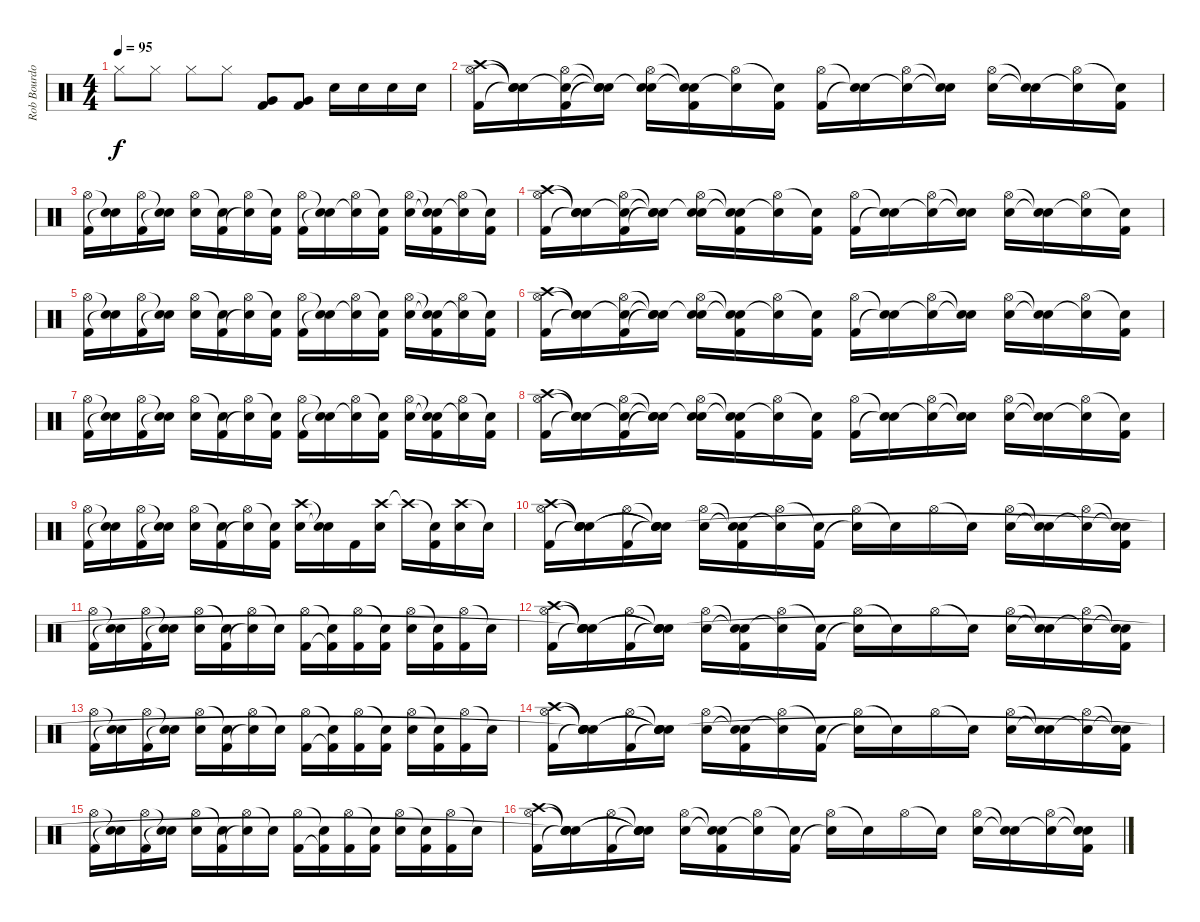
\track ("Rob Bourdon" "Rob Bourdo") {instrument percussion}
\staff {score}
\articulation defaults
\ts (4 4)
\tempo 95
\clef neutral
\ks c "Hi-Hat (closed)".8{dy f} "Hi-Hat (closed)".8 "Hi-Hat (closed)".8 "Hi-Hat (closed)".8
("Very Low Tom (hit)" "Kick (hit) 2").8 ("Very Low Tom (hit)" "Kick (hit) 2").8 "Snare (hit) 2".16 "Snare (hit) 2".16 "Snare (hit) 2".16 "Snare (hit) 2".16 |
("Crash high (hit)" "Hi-Hat (open)" "Kick (hit) 2").16 ("Snare (hit)"{t} "Snare (hit)"{t} "Snare (hit)"{t}).16 ("Snare (hit)"{t} "Hi-Hat (open)" "Kick (hit) 2").16 ("Snare (hit)"{t} "Snare (hit)"{t} "Snare (hit)"{t}).16 ("Snare (hit)"{t} "Hi-Hat (open)" "Snare (hit) 2").16 ("Snare (hit)"{t} "Snare (hit)"{t} "Kick (hit) 2").16 ("Hi-Hat (open)" "Snare (hit)"{t}).16 ("Snare (hit)"{t} "Kick (hit) 2").16 ("Hi-Hat (open)" "Kick (hit) 2").16 ("Snare (hit)"{t} "Snare (hit)"{t}).16 ("Hi-Hat (open)" "Snare (hit)"{t}).16 ("Snare (hit)"{t} "Snare (hit)"{t}).16 ("Hi-Hat (open)" "Snare (hit) 2").16 ("Snare (hit)"{t} "Snare (hit)"{t}).16 ("Hi-Hat (open)" "Snare (hit)"{t}).16 ("Snare (hit)"{t} "Kick (hit) 2").16 |
("Hi-Hat (open)" "Kick (hit) 2").16 ("Snare (hit)"{t} "Snare (hit)"{t}).16 ("Hi-Hat (open)" "Kick (hit) 2").16 ("Snare (hit)"{t} "Snare (hit)"{t}).16 ("Hi-Hat (open)" "Snare (hit) 2").16 ("Snare (hit)"{t} "Kick (hit) 2").16 ("Hi-Hat (open)" "Snare (hit)"{t}).16 ("Snare (hit)"{t} "Kick (hit) 2").16 ("Hi-Hat (open)" "Kick (hit) 2").16 ("Snare (hit)"{t} "Snare (hit)"{t}).16 ("Hi-Hat (open)" "Snare (hit)"{t}).16 ("Snare (hit)"{t} "Kick (hit) 2").16 ("Hi-Hat (open)" "Snare (hit) 2").16 ("Snare (hit)"{t} "Snare (hit)"{t} "Kick (hit) 2").16 ("Hi-Hat (open)" "Snare (hit)"{t}).16 ("Snare (hit)"{t} "Kick (hit) 2").16 |
("Crash high (hit)" "Hi-Hat (open)" "Kick (hit) 2").16 ("Snare (hit)"{t} "Snare (hit)"{t} "Snare (hit)"{t}).16 ("Snare (hit)"{t} "Hi-Hat (open)" "Kick (hit) 2").16 ("Snare (hit)"{t} "Snare (hit)"{t} "Snare (hit)"{t}).16 ("Snare (hit)"{t} "Hi-Hat (open)" "Snare (hit) 2").16 ("Snare (hit)"{t} "Snare (hit)"{t} "Kick (hit) 2").16 ("Hi-Hat (open)" "Snare (hit)"{t}).16 ("Snare (hit)"{t} "Kick (hit) 2").16 ("Hi-Hat (open)" "Kick (hit) 2").16 ("Snare (hit)"{t} "Snare (hit)"{t}).16 ("Hi-Hat (open)" "Snare (hit)"{t}).16 ("Snare (hit)"{t} "Snare (hit)"{t}).16 ("Hi-Hat (open)" "Snare (hit) 2").16 ("Snare (hit)"{t} "Snare (hit)"{t}).16 ("Hi-Hat (open)" "Snare (hit)"{t}).16 ("Snare (hit)"{t} "Kick (hit) 2").16 |
("Hi-Hat (open)" "Kick (hit) 2").16 ("Snare (hit)"{t} "Snare (hit)"{t}).16 ("Hi-Hat (open)" "Kick (hit) 2").16 ("Snare (hit)"{t} "Snare (hit)"{t}).16 ("Hi-Hat (open)" "Snare (hit) 2").16 ("Snare (hit)"{t} "Kick (hit) 2").16 ("Hi-Hat (open)" "Snare (hit)"{t}).16 ("Snare (hit)"{t} "Kick (hit) 2").16 ("Hi-Hat (open)" "Kick (hit) 2").16 ("Snare (hit)"{t} "Snare (hit)"{t}).16 ("Hi-Hat (open)" "Snare (hit)"{t}).16 ("Snare (hit)"{t} "Kick (hit) 2").16 ("Hi-Hat (open)" "Snare (hit) 2").16 ("Snare (hit)"{t} "Snare (hit)"{t} "Kick (hit) 2").16 ("Hi-Hat (open)" "Snare (hit)"{t}).16 ("Snare (hit)"{t} "Kick (hit) 2").16 |
("Crash high (hit)" "Hi-Hat (open)" "Kick (hit) 2").16 ("Snare (hit)"{t} "Snare (hit)"{t} "Snare (hit)"{t}).16 ("Snare (hit)"{t} "Hi-Hat (open)" "Kick (hit) 2").16 ("Snare (hit)"{t} "Snare (hit)"{t} "Snare (hit)"{t}).16 ("Snare (hit)"{t} "Hi-Hat (open)" "Snare (hit) 2").16 ("Snare (hit)"{t} "Snare (hit)"{t} "Kick (hit) 2").16 ("Hi-Hat (open)" "Snare (hit)"{t}).16 ("Snare (hit)"{t} "Kick (hit) 2").16 ("Hi-Hat (open)" "Kick (hit) 2").16 ("Snare (hit)"{t} "Snare (hit)"{t}).16 ("Hi-Hat (open)" "Snare (hit)"{t}).16 ("Snare (hit)"{t} "Snare (hit)"{t}).16 ("Hi-Hat (open)" "Snare (hit) 2").16 ("Snare (hit)"{t} "Snare (hit)"{t}).16 ("Hi-Hat (open)" "Snare (hit)"{t}).16 ("Snare (hit)"{t} "Kick (hit) 2").16 |
("Hi-Hat (open)" "Kick (hit) 2").16 ("Snare (hit)"{t} "Snare (hit)"{t}).16 ("Hi-Hat (open)" "Kick (hit) 2").16 ("Snare (hit)"{t} "Snare (hit)"{t}).16 ("Hi-Hat (open)" "Snare (hit) 2").16 ("Snare (hit)"{t} "Kick (hit) 2").16 ("Hi-Hat (open)" "Snare (hit)"{t}).16 ("Snare (hit)"{t} "Kick (hit) 2").16 ("Hi-Hat (open)" "Kick (hit) 2").16 ("Snare (hit)"{t} "Snare (hit)"{t}).16 ("Hi-Hat (open)" "Snare (hit)"{t}).16 ("Snare (hit)"{t} "Kick (hit) 2").16 ("Hi-Hat (open)" "Snare (hit) 2").16 ("Snare (hit)"{t} "Snare (hit)"{t} "Kick (hit) 2").16 ("Hi-Hat (open)" "Snare (hit)"{t}).16 ("Snare (hit)"{t} "Kick (hit) 2").16 |
("Crash high (hit)" "Hi-Hat (open)" "Kick (hit) 2").16 ("Snare (hit)"{t} "Snare (hit)"{t} "Snare (hit)"{t}).16 ("Snare (hit)"{t} "Hi-Hat (open)" "Kick (hit) 2").16 ("Snare (hit)"{t} "Snare (hit)"{t} "Snare (hit)"{t}).16 ("Snare (hit)"{t} "Hi-Hat (open)" "Snare (hit) 2").16 ("Snare (hit)"{t} "Snare (hit)"{t} "Kick (hit) 2").16 ("Hi-Hat (open)" "Snare (hit)"{t}).16 ("Snare (hit)"{t} "Kick (hit) 2").16 ("Hi-Hat (open)" "Kick (hit) 2").16 ("Snare (hit)"{t} "Snare (hit)"{t}).16 ("Hi-Hat (open)" "Snare (hit)"{t}).16 ("Snare (hit)"{t} "Snare (hit)"{t}).16 ("Hi-Hat (open)" "Snare (hit) 2").16 ("Snare (hit)"{t} "Snare (hit)"{t}).16 ("Hi-Hat (open)" "Snare (hit)"{t}).16 ("Snare (hit)"{t} "Kick (hit) 2").16 |
("Hi-Hat (open)" "Kick (hit) 2").16 ("Snare (hit)"{t} "Snare (hit)"{t}).16 ("Hi-Hat (open)" "Kick (hit) 2").16 ("Snare (hit)"{t} "Snare (hit)"{t}).16 ("Hi-Hat (open)" "Snare (hit) 2").16 ("Snare (hit)"{t} "Kick (hit) 2").16 ("Hi-Hat (open)" "Snare (hit)"{t}).16 ("Snare (hit)"{t} "Kick (hit) 2").16 ("Crash high (hit)" "Snare (hit) 2").16 ("Snare (hit)"{t} "Snare (hit)"{t}).16 "Kick (hit) 2".16 ("Crash high (hit)" "Snare (hit) 2").16 "Crash high (hit)"{t}.16 ("Snare (hit)"{t} "Kick (hit) 2").16 ("Crash high (hit)" "Snare (hit) 2").16 "Snare (hit)"{t}.16 |
("Crash high (hit)" "Hi-Hat (open)" "Kick (hit) 2").16 ("Snare (hit)"{t} "Snare (hit)"{t} "Snare (hit)"{t} "Snare (hit)").16 ("Hi-Hat (open)" "Kick (hit) 2").16 ("Snare (hit)"{t} "Snare (hit)"{t} "Snare (hit)"{t} "Snare (hit)"{t}).16 ("Hi-Hat (open)" "Snare (hit) 2").16 ("Snare (hit)"{t} "Snare (hit)"{t} "Kick (hit) 2").16 ("Hi-Hat (open)" "Snare (hit)"{t}).16 ("Snare (hit)"{t} "Kick (hit) 2").16 ("Hi-Hat (open)" "Snare (hit)"{t}).16 "Snare (hit)"{t}.16 "Hi-Hat (open)".16 "Snare (hit)"{t}.16 ("Hi-Hat (open)" "Snare (hit) 2").16 ("Snare (hit)"{t} "Snare (hit)"{t}).16 ("Hi-Hat (open)" "Snare (hit)"{t}).16 ("Snare (hit)"{t} "Snare (hit)"{t} "Kick (hit) 2").16 |
("Hi-Hat (open)" "Kick (hit) 2").16 ("Snare (hit)"{t} "Snare (hit)"{t}).16 ("Hi-Hat (open)" "Kick (hit) 2").16 ("Snare (hit)"{t} "Snare (hit)"{t}).16 ("Hi-Hat (open)" "Snare (hit) 2").16 ("Snare (hit)"{t} "Kick (hit) 2").16 ("Hi-Hat (open)" "Snare (hit)"{t}).16 "Snare (hit)"{t}.16 ("Hi-Hat (open)" "Kick (hit) 2").16 ("Snare (hit)"{t} "Kick (hit) 2"{t}).16 ("Hi-Hat (open)" "Kick (hit) 2").16 ("Snare (hit)"{t} "Kick (hit) 2").16 ("Hi-Hat (open)" "Snare (hit) 2").16 ("Snare (hit)"{t} "Kick (hit) 2").16 ("Hi-Hat (open)" "Kick (hit) 2").16 "Snare (hit)"{t}.16 |
("Crash high (hit)" "Hi-Hat (open)" "Kick (hit) 2").16 ("Snare (hit)"{t} "Snare (hit)"{t} "Snare (hit)"{t} "Snare (hit)"{t}).16 ("Hi-Hat (open)" "Kick (hit) 2").16 ("Snare (hit)"{t} "Snare (hit)"{t} "Snare (hit)"{t} "Snare (hit)"{t}).16 ("Hi-Hat (open)" "Snare (hit) 2").16 ("Snare (hit)"{t} "Snare (hit)"{t} "Kick (hit) 2").16 ("Hi-Hat (open)" "Snare (hit)"{t}).16 ("Snare (hit)"{t} "Kick (hit) 2").16 ("Hi-Hat (open)" "Snare (hit)"{t}).16 "Snare (hit)"{t}.16 "Hi-Hat (open)".16 "Snare (hit)"{t}.16 ("Hi-Hat (open)" "Snare (hit) 2").16 ("Snare (hit)"{t} "Snare (hit)"{t}).16 ("Hi-Hat (open)" "Snare (hit)"{t}).16 ("Snare (hit)"{t} "Snare (hit)"{t} "Kick (hit) 2").16 |
("Hi-Hat (open)" "Kick (hit) 2").16 ("Snare (hit)"{t} "Snare (hit)"{t}).16 ("Hi-Hat (open)" "Kick (hit) 2").16 ("Snare (hit)"{t} "Snare (hit)"{t}).16 ("Hi-Hat (open)" "Snare (hit) 2").16 ("Snare (hit)"{t} "Kick (hit) 2").16 ("Hi-Hat (open)" "Snare (hit)"{t}).16 "Snare (hit)"{t}.16 ("Hi-Hat (open)" "Kick (hit) 2").16 ("Snare (hit)"{t} "Kick (hit) 2"{t}).16 ("Hi-Hat (open)" "Kick (hit) 2").16 ("Snare (hit)"{t} "Kick (hit) 2").16 ("Hi-Hat (open)" "Snare (hit) 2").16 ("Snare (hit)"{t} "Kick (hit) 2").16 ("Hi-Hat (open)" "Kick (hit) 2").16 "Snare (hit)"{t}.16 |
("Crash high (hit)" "Hi-Hat (open)" "Kick (hit) 2").16 ("Snare (hit)"{t} "Snare (hit)"{t} "Snare (hit)"{t} "Snare (hit)"{t}).16 ("Hi-Hat (open)" "Kick (hit) 2").16 ("Snare (hit)"{t} "Snare (hit)"{t} "Snare (hit)"{t} "Snare (hit)"{t}).16 ("Hi-Hat (open)" "Snare (hit) 2").16 ("Snare (hit)"{t} "Snare (hit)"{t} "Kick (hit) 2").16 ("Hi-Hat (open)" "Snare (hit)"{t}).16 ("Snare (hit)"{t} "Kick (hit) 2").16 ("Hi-Hat (open)" "Snare (hit)"{t}).16 "Snare (hit)"{t}.16 "Hi-Hat (open)".16 "Snare (hit)"{t}.16 ("Hi-Hat (open)" "Snare (hit) 2").16 ("Snare (hit)"{t} "Snare (hit)"{t}).16 ("Hi-Hat (open)" "Snare (hit)"{t}).16 ("Snare (hit)"{t} "Snare (hit)"{t} "Kick (hit) 2").16 |
("Hi-Hat (open)" "Kick (hit) 2").16 ("Snare (hit)"{t} "Snare (hit)"{t}).16 ("Hi-Hat (open)" "Kick (hit) 2").16 ("Snare (hit)"{t} "Snare (hit)"{t}).16 ("Hi-Hat (open)" "Snare (hit) 2").16 ("Snare (hit)"{t} "Kick (hit) 2").16 ("Hi-Hat (open)" "Snare (hit)"{t}).16 "Snare (hit)"{t}.16 ("Hi-Hat (open)" "Kick (hit) 2").16 ("Snare (hit)"{t} "Kick (hit) 2"{t}).16 ("Hi-Hat (open)" "Kick (hit) 2").16 ("Snare (hit)"{t} "Kick (hit) 2").16 ("Hi-Hat (open)" "Snare (hit) 2").16 ("Snare (hit)"{t} "Kick (hit) 2").16 ("Hi-Hat (open)" "Kick (hit) 2").16 "Snare (hit)"{t}.16 |
("Crash high (hit)" "Hi-Hat (open)" "Kick (hit) 2").16 ("Snare (hit)"{t} "Snare (hit)"{t} "Snare (hit)"{t} "Snare (hit)"{t}).16 ("Hi-Hat (open)" "Kick (hit) 2").16 ("Snare (hit)"{t} "Snare (hit)"{t} "Snare (hit)"{t} "Snare (hit)"{t}).16 ("Hi-Hat (open)" "Snare (hit) 2").16 ("Snare (hit)"{t} "Snare (hit)"{t} "Kick (hit) 2").16 ("Hi-Hat (open)" "Snare (hit)"{t}).16 ("Snare (hit)"{t} "Kick (hit) 2").16 ("Hi-Hat (open)" "Snare (hit)"{t}).16 "Snare (hit)"{t}.16 "Hi-Hat (open)".16 "Snare (hit)"{t}.16 ("Hi-Hat (open)" "Snare (hit) 2").16 ("Snare (hit)"{t} "Snare (hit)"{t}).16 ("Hi-Hat (open)" "Snare (hit)"{t}).16 ("Snare (hit)"{t} "Snare (hit)"{t} "Kick (hit) 2").16
